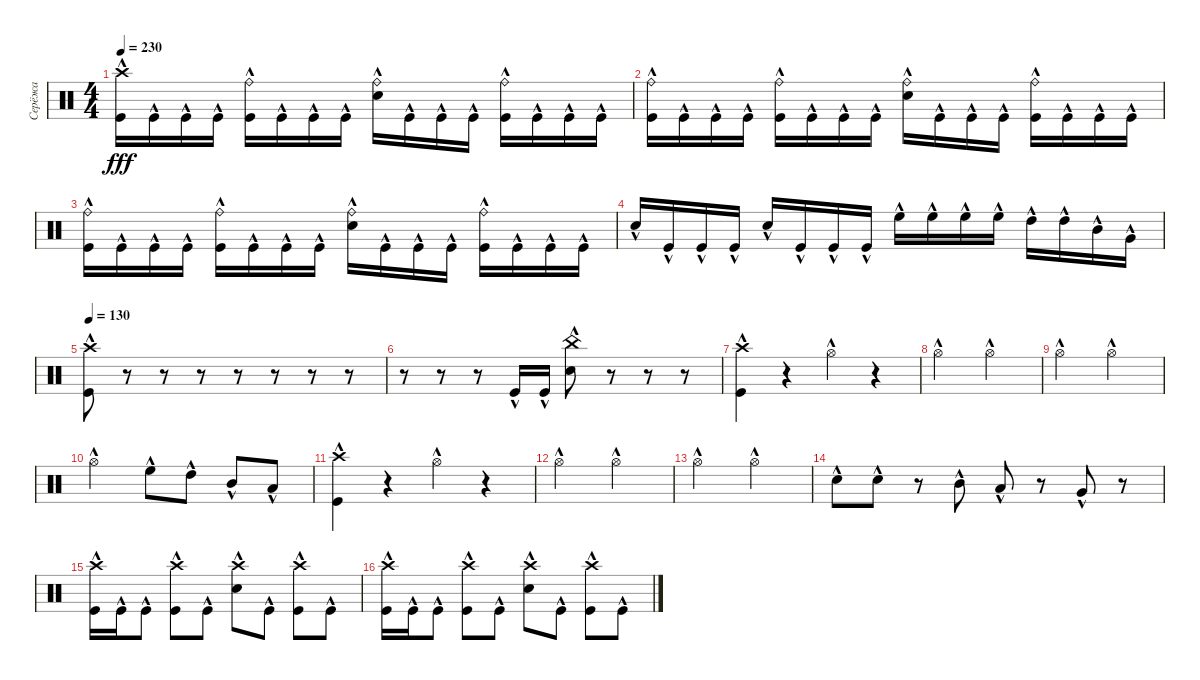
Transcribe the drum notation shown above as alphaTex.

\track ("Серёжа" "Серёжа") {instrument percussion}
\staff {score}
\articulation defaults
\ts (4 4)
\tempo 230
\clef neutral
\ks c
("Crash high (hit)"{hac} "Kick (hit)"{hac}).16{dy fff} "Kick (hit)"{hac}.16 "Kick (hit)"{hac}.16 "Kick (hit)"{hac}.16 ("Ride (bell)" "Kick (hit)"{hac}).16 "Kick (hit)"{hac}.16 "Kick (hit)"{hac}.16 "Kick (hit)"{hac}.16 ("Ride (bell)" "Snare (hit) 2"{hac}).16 "Kick (hit)"{hac}.16 "Kick (hit)"{hac}.16 "Kick (hit)"{hac}.16 ("Ride (bell)" "Kick (hit)"{hac}).16 "Kick (hit)"{hac}.16 "Kick (hit)"{hac}.16 "Kick (hit)"{hac}.16 |
("Ride (bell)" "Kick (hit)"{hac}).16 "Kick (hit)"{hac}.16 "Kick (hit)"{hac}.16 "Kick (hit)"{hac}.16 ("Ride (bell)" "Kick (hit)"{hac}).16 "Kick (hit)"{hac}.16 "Kick (hit)"{hac}.16 "Kick (hit)"{hac}.16 ("Ride (bell)" "Snare (hit) 2"{hac}).16 "Kick (hit)"{hac}.16 "Kick (hit)"{hac}.16 "Kick (hit)"{hac}.16 ("Ride (bell)" "Kick (hit)"{hac}).16 "Kick (hit)"{hac}.16 "Kick (hit)"{hac}.16 "Kick (hit)"{hac}.16 |
("Ride (bell)" "Kick (hit)"{hac}).16 "Kick (hit)"{hac}.16 "Kick (hit)"{hac}.16 "Kick (hit)"{hac}.16 ("Ride (bell)" "Kick (hit)"{hac}).16 "Kick (hit)"{hac}.16 "Kick (hit)"{hac}.16 "Kick (hit)"{hac}.16 ("Ride (bell)" "Snare (hit) 2"{hac}).16 "Kick (hit)"{hac}.16 "Kick (hit)"{hac}.16 "Kick (hit)"{hac}.16 ("Ride (bell)" "Kick (hit)"{hac}).16 "Kick (hit)"{hac}.16 "Kick (hit)"{hac}.16 "Kick (hit)"{hac}.16 |
"Snare (hit) 2"{hac}.16 "Kick (hit)"{hac}.16 "Kick (hit)"{hac}.16 "Kick (hit)"{hac}.16 "Snare (hit) 2"{hac}.16 "Kick (hit)"{hac}.16 "Kick (hit)"{hac}.16 "Kick (hit)"{hac}.16 "High Floor Tom (hit)"{hac}.16 "High Floor Tom (hit)"{hac}.16 "High Floor Tom (hit)"{hac}.16 "High Floor Tom (hit)"{hac}.16 "High Tom (hit)"{hac}.16 "High Tom (hit)"{hac}.16 "Mid Tom (hit)"{hac}.16 "Very Low Tom (hit)"{hac}.16 |
\tempo 130
("Crash high (hit)"{hac} "Kick (hit)"{hac}).8 r.8 r.8 r.8 r.8 r.8 r.8 r.8 |
r.8 r.8 r.8 "Kick (hit)"{hac}.16 "Kick (hit)"{hac}.16 ("China (hit)"{hac} "Snare (hit) 2"{hac}).8 r.8 r.8 r.8 |
("Crash high (hit)"{hac} "Kick (hit)"{hac}).4 r.4 "Hi-Hat (open)"{hac}.4 r.4 |
"Hi-Hat (open)"{hac}.2 "Hi-Hat (open)"{hac}.2 |
"Hi-Hat (open)"{hac}.2 "Hi-Hat (open)"{hac}.2 |
"Hi-Hat (open)"{hac}.2 "High Floor Tom (hit)"{hac}.8 "High Tom (hit)"{hac}.8 "Mid Tom (hit)"{hac}.8 "Low Tom (hit)"{hac}.8 |
("Crash high (hit)"{hac} "Kick (hit)"{hac}).4 r.4 "Hi-Hat (open)"{hac}.4 r.4 |
"Hi-Hat (open)"{hac}.2 "Hi-Hat (open)"{hac}.2 |
"Hi-Hat (open)"{hac}.2 "Hi-Hat (open)"{hac}.2 |
"Snare (hit) 2"{hac}.8 "Snare (hit) 2"{hac}.8 r.8 "Mid Tom (hit)"{hac}.8 "Low Tom (hit)"{hac}.8 r.8 "Very Low Tom (hit)"{hac}.8 r.8 |
("Crash high (hit)"{hac} "Kick (hit)"{hac}).16 "Kick (hit)"{hac}.16 "Kick (hit)"{hac}.8 ("Crash high (hit)" "Kick (hit)"{hac}).8 "Kick (hit)"{hac}.8 ("Crash high (hit)" "Snare (hit) 2"{hac}).8 "Kick (hit)"{hac}.8 ("Crash high (hit)" "Kick (hit)"{hac}).8 "Kick (hit)"{hac}.8 |
("Crash high (hit)" "Kick (hit)"{hac}).16 "Kick (hit)"{hac}.16 "Kick (hit)"{hac}.8 ("Crash high (hit)" "Kick (hit)"{hac}).8 "Kick (hit)"{hac}.8 ("Crash high (hit)" "Snare (hit) 2"{hac}).8 "Kick (hit)"{hac}.8 ("Crash high (hit)" "Kick (hit)"{hac}).8 "Kick (hit)"{hac}.8
